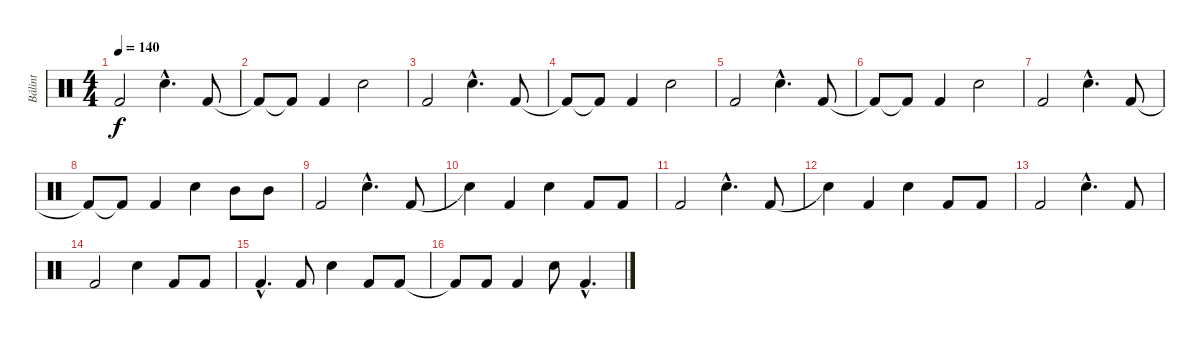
\track ("Bálint" "Bálint") {instrument percussion}
\staff {score}
\articulation defaults
\ts (4 4)
\tempo 140
\clef neutral
\ks c "Kick (hit) 2".2{dy f} "Snare (hit) 2"{hac}.4{d} "Kick (hit) 2".8
|
"Kick (hit) 2"{t}.8 "Kick (hit) 2"{t}.8 "Kick (hit) 2".4 "Snare (hit) 2".2 |
"Kick (hit) 2".2 "Snare (hit) 2"{hac}.4{d} "Kick (hit) 2".8 |
"Kick (hit) 2"{t}.8 "Kick (hit) 2"{t}.8 "Kick (hit) 2".4 "Snare (hit) 2".2 |
"Kick (hit) 2".2 "Snare (hit) 2"{hac}.4{d} "Kick (hit) 2".8 |
"Kick (hit) 2"{t}.8 "Kick (hit) 2"{t}.8 "Kick (hit) 2".4 "Snare (hit) 2".2 |
"Kick (hit) 2".2 "Snare (hit) 2"{hac}.4{d} "Kick (hit) 2".8 |
"Kick (hit) 2"{t}.8 "Kick (hit) 2"{t}.8 "Kick (hit) 2".4 "Snare (hit) 2".4 "Mid Tom (hit)".8 "Mid Tom (hit)".8 |
"Kick (hit) 2".2 "Snare (hit) 2"{hac}.4{d} "Kick (hit) 2".8 |
"Snare (hit)"{t}.4 "Kick (hit) 2".4 "Snare (hit) 2".4 "Kick (hit) 2".8 "Kick (hit) 2".8 |
"Kick (hit) 2".2 "Snare (hit) 2"{hac}.4{d} "Kick (hit) 2".8 |
"Snare (hit)"{t}.4 "Kick (hit) 2".4 "Snare (hit) 2".4 "Kick (hit) 2".8 "Kick (hit) 2".8 |
"Kick (hit) 2".2 "Snare (hit) 2"{hac}.4{d} "Kick (hit) 2".8 |
"Kick (hit) 2".2 "Snare (hit) 2".4 "Kick (hit) 2".8 "Kick (hit) 2".8 |
"Kick (hit) 2"{hac}.4{d} "Kick (hit) 2".8 "Snare (hit) 2".4 "Kick (hit) 2".8 "Kick (hit) 2".8 |
"Kick (hit) 2"{t}.8 "Kick (hit) 2".8 "Kick (hit) 2".4 "Snare (hit) 2".8 "Kick (hit) 2"{hac}.4{d}
